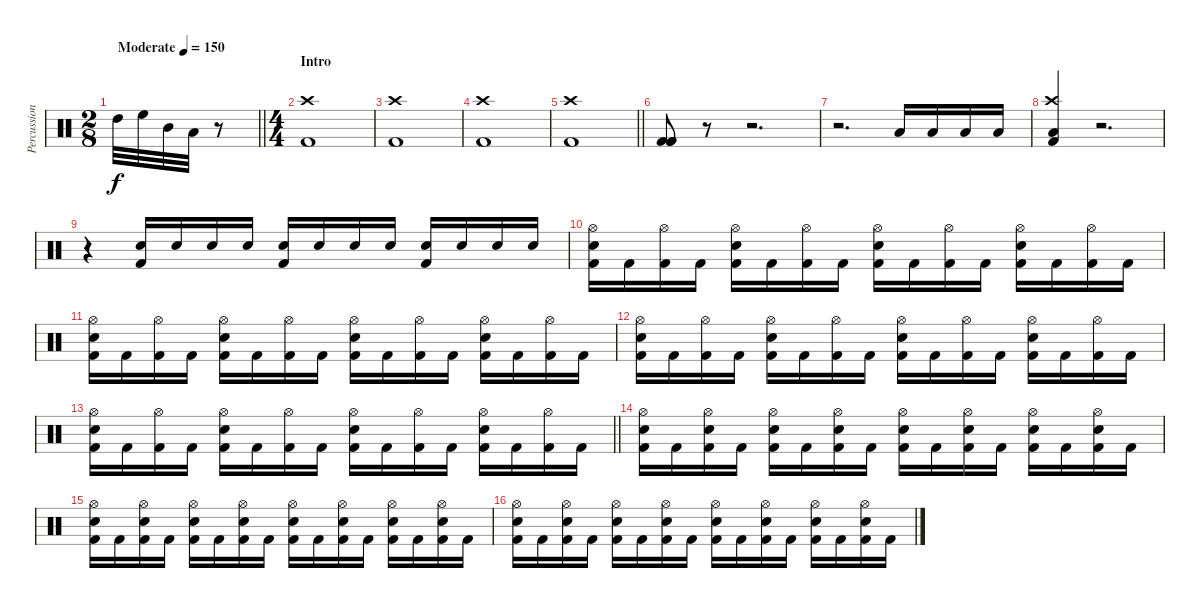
\track ("Percussion" "Percussion") {instrument percussion}
\staff {score}
\articulation defaults
\ts (2 8)
\tempo (150 "Moderate")
\clef neutral
\barLineRight lightlight
\ks c "High Tom (hit)".32{dy f} "High Floor Tom (hit)".32 "Mid Tom (hit)".32 "Low Tom (hit)".32
r.8 |
\ts (4 4)
\section ("" "Intro")
("Crash high (hit)" "Kick (hit) 2").1 |
("Crash high (hit)" "Kick (hit) 2").1 |
("Crash high (hit)" "Kick (hit) 2").1 |
\barLineRight lightlight
("Crash high (hit)" "Kick (hit) 2").1 |
("Kick (hit) 2" "Kick (hit) 2" "Kick (hit) 2").8 r.8 r.2{d} |
r.2{d} "Low Tom (hit)".16 "Low Tom (hit)".16 "Low Tom (hit)".16 "Low Tom (hit)".16 |
("Crash high (hit)" "Low Tom (hit)" "Kick (hit) 2").4 r.2{d} |
r.4 ("Electric Snare (hit)" "Kick (hit) 2").16 "Electric Snare (hit)".16 "Electric Snare (hit)".16 "Electric Snare (hit)".16 ("Electric Snare (hit)" "Kick (hit) 2").16 "Electric Snare (hit)".16 "Electric Snare (hit)".16 "Electric Snare (hit)".16 ("Electric Snare (hit)" "Kick (hit) 2").16 "Electric Snare (hit)".16 "Electric Snare (hit)".16 "Electric Snare (hit)".16 |
("Hi-Hat (open)" "Electric Snare (hit)" "Kick (hit) 2").16 "Kick (hit) 2".16 ("Hi-Hat (open)" "Kick (hit) 2").16 "Kick (hit) 2".16 ("Hi-Hat (open)" "Electric Snare (hit)" "Kick (hit) 2").16 "Kick (hit) 2".16 ("Hi-Hat (open)" "Kick (hit) 2").16 "Kick (hit) 2".16 ("Hi-Hat (open)" "Electric Snare (hit)" "Kick (hit) 2").16 "Kick (hit) 2".16 ("Hi-Hat (open)" "Kick (hit) 2").16 "Kick (hit) 2".16 ("Hi-Hat (open)" "Electric Snare (hit)" "Kick (hit) 2").16 "Kick (hit) 2".16 ("Hi-Hat (open)" "Kick (hit) 2").16 "Kick (hit) 2".16 |
("Hi-Hat (open)" "Electric Snare (hit)" "Kick (hit) 2").16 "Kick (hit) 2".16 ("Hi-Hat (open)" "Kick (hit) 2").16 "Kick (hit) 2".16 ("Hi-Hat (open)" "Electric Snare (hit)" "Kick (hit) 2").16 "Kick (hit) 2".16 ("Hi-Hat (open)" "Kick (hit) 2").16 "Kick (hit) 2".16 ("Hi-Hat (open)" "Electric Snare (hit)" "Kick (hit) 2").16 "Kick (hit) 2".16 ("Hi-Hat (open)" "Kick (hit) 2").16 "Kick (hit) 2".16 ("Hi-Hat (open)" "Electric Snare (hit)" "Kick (hit) 2").16 "Kick (hit) 2".16 ("Hi-Hat (open)" "Kick (hit) 2").16 "Kick (hit) 2".16 |
("Hi-Hat (open)" "Electric Snare (hit)" "Kick (hit) 2").16 "Kick (hit) 2".16 ("Hi-Hat (open)" "Kick (hit) 2").16 "Kick (hit) 2".16 ("Hi-Hat (open)" "Electric Snare (hit)" "Kick (hit) 2").16 "Kick (hit) 2".16 ("Hi-Hat (open)" "Kick (hit) 2").16 "Kick (hit) 2".16 ("Hi-Hat (open)" "Electric Snare (hit)" "Kick (hit) 2").16 "Kick (hit) 2".16 ("Hi-Hat (open)" "Kick (hit) 2").16 "Kick (hit) 2".16 ("Hi-Hat (open)" "Electric Snare (hit)" "Kick (hit) 2").16 "Kick (hit) 2".16 ("Hi-Hat (open)" "Kick (hit) 2").16 "Kick (hit) 2".16 |
\barLineRight lightlight
("Hi-Hat (open)" "Electric Snare (hit)" "Kick (hit) 2").16 "Kick (hit) 2".16 ("Hi-Hat (open)" "Kick (hit) 2").16 "Kick (hit) 2".16 ("Hi-Hat (open)" "Electric Snare (hit)" "Kick (hit) 2").16 "Kick (hit) 2".16 ("Hi-Hat (open)" "Kick (hit) 2").16 "Kick (hit) 2".16 ("Hi-Hat (open)" "Electric Snare (hit)" "Kick (hit) 2").16 "Kick (hit) 2".16 ("Hi-Hat (open)" "Kick (hit) 2").16 "Kick (hit) 2".16 ("Hi-Hat (open)" "Electric Snare (hit)" "Kick (hit) 2").16 "Kick (hit) 2".16 ("Hi-Hat (open)" "Kick (hit) 2").16 "Kick (hit) 2".16 |
("Hi-Hat (open)" "Electric Snare (hit)" "Kick (hit) 2").16 "Kick (hit) 2".16 ("Hi-Hat (open)" "Electric Snare (hit)" "Kick (hit) 2").16 "Kick (hit) 2".16 ("Hi-Hat (open)" "Electric Snare (hit)" "Kick (hit) 2").16 "Kick (hit) 2".16 ("Hi-Hat (open)" "Electric Snare (hit)" "Kick (hit) 2").16 "Kick (hit) 2".16 ("Hi-Hat (open)" "Electric Snare (hit)" "Kick (hit) 2").16 "Kick (hit) 2".16 ("Hi-Hat (open)" "Electric Snare (hit)" "Kick (hit) 2").16 "Kick (hit) 2".16 ("Hi-Hat (open)" "Electric Snare (hit)" "Kick (hit) 2").16 "Kick (hit) 2".16 ("Hi-Hat (open)" "Electric Snare (hit)" "Kick (hit) 2").16 "Kick (hit) 2".16 |
("Hi-Hat (open)" "Electric Snare (hit)" "Kick (hit) 2").16 "Kick (hit) 2".16 ("Hi-Hat (open)" "Electric Snare (hit)" "Kick (hit) 2").16 "Kick (hit) 2".16 ("Hi-Hat (open)" "Electric Snare (hit)" "Kick (hit) 2").16 "Kick (hit) 2".16 ("Hi-Hat (open)" "Electric Snare (hit)" "Kick (hit) 2").16 "Kick (hit) 2".16 ("Hi-Hat (open)" "Electric Snare (hit)" "Kick (hit) 2").16 "Kick (hit) 2".16 ("Hi-Hat (open)" "Electric Snare (hit)" "Kick (hit) 2").16 "Kick (hit) 2".16 ("Hi-Hat (open)" "Electric Snare (hit)" "Kick (hit) 2").16 "Kick (hit) 2".16 ("Hi-Hat (open)" "Electric Snare (hit)" "Kick (hit) 2").16 "Kick (hit) 2".16 |
("Hi-Hat (open)" "Electric Snare (hit)" "Kick (hit) 2").16 "Kick (hit) 2".16 ("Hi-Hat (open)" "Electric Snare (hit)" "Kick (hit) 2").16 "Kick (hit) 2".16 ("Hi-Hat (open)" "Electric Snare (hit)" "Kick (hit) 2").16 "Kick (hit) 2".16 ("Hi-Hat (open)" "Electric Snare (hit)" "Kick (hit) 2").16 "Kick (hit) 2".16 ("Hi-Hat (open)" "Electric Snare (hit)" "Kick (hit) 2").16 "Kick (hit) 2".16 ("Hi-Hat (open)" "Electric Snare (hit)" "Kick (hit) 2").16 "Kick (hit) 2".16 ("Hi-Hat (open)" "Electric Snare (hit)" "Kick (hit) 2").16 "Kick (hit) 2".16 ("Hi-Hat (open)" "Electric Snare (hit)" "Kick (hit) 2").16 "Kick (hit) 2".16
